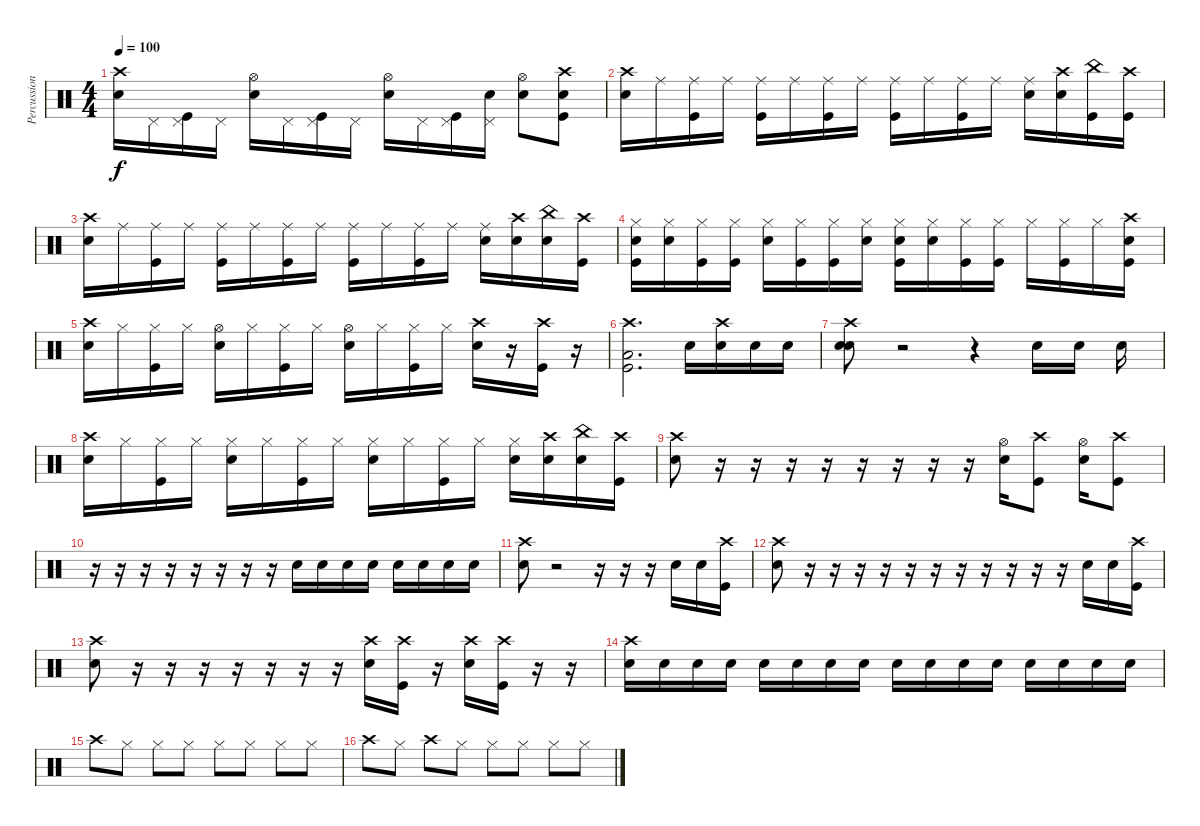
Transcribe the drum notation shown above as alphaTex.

\track ("Percussion" "Percussion") {instrument percussion}
\staff {score}
\articulation defaults
\ts (4 4)
\tempo 100
\clef neutral
\ks c
("Crash high (hit)" "Snare (hit) 2").16{dy f} "Pedal Hi-Hat (hit)".16 ("Kick (hit)" "Pedal Hi-Hat (hit)").16 "Pedal Hi-Hat (hit)".16 ("Hi-Hat (open)" "Snare (hit) 2").16 "Pedal Hi-Hat (hit)".16 ("Pedal Hi-Hat (hit)" "Kick (hit)").16 "Pedal Hi-Hat (hit)".16 ("Hi-Hat (open)" "Snare (hit) 2").16 "Pedal Hi-Hat (hit)".16 ("Kick (hit)" "Pedal Hi-Hat (hit)").16 ("Pedal Hi-Hat (hit)" "Snare (hit) 2").16 ("Hi-Hat (open)" "Snare (hit) 2").8 ("Crash high (hit)" "Kick (hit)" "Snare (hit) 2").8 |
("Snare (hit) 2" "Crash high (hit)").16 "Ride (middle)".16 ("Ride (middle)" "Kick (hit)").16 "Ride (middle)".16 ("Ride (middle)" "Kick (hit)").16 "Ride (middle)".16 ("Ride (middle)" "Kick (hit)").16 "Ride (middle)".16 ("Ride (middle)" "Kick (hit)").16 "Ride (middle)".16 ("Ride (middle)" "Kick (hit)").16 "Ride (middle)".16 ("Ride (middle)" "Snare (hit) 2").16 ("Crash high (hit)" "Snare (hit) 2").16 ("China (hit)" "Kick (hit)").16 ("Crash high (hit)" "Kick (hit)").16 |
("Crash high (hit)" "Snare (hit) 2").16 "Ride (middle)".16 ("Kick (hit)" "Ride (middle)").16 "Ride (middle)".16 ("Kick (hit)" "Ride (middle)").16 "Ride (middle)".16 ("Kick (hit)" "Ride (middle)").16 "Ride (middle)".16 ("Kick (hit)" "Ride (middle)").16 "Ride (middle)".16 ("Kick (hit)" "Ride (middle)").16 "Ride (middle)".16 ("Snare (hit) 2" "Ride (middle)").16 ("Snare (hit) 2" "Crash high (hit)").16 ("China (hit)" "Snare (hit) 2").16 ("Kick (hit)" "Crash high (hit)").16 |
("Hi-Hat (closed)" "Kick (hit)" "Snare (hit) 2").16 ("Hi-Hat (closed)" "Snare (hit) 2").16 ("Hi-Hat (closed)" "Kick (hit)").16 ("Hi-Hat (closed)" "Kick (hit)").16 ("Hi-Hat (closed)" "Snare (hit) 2").16 ("Hi-Hat (closed)" "Kick (hit)").16 ("Hi-Hat (closed)" "Kick (hit)").16 ("Hi-Hat (closed)" "Snare (hit) 2").16 ("Hi-Hat (closed)" "Kick (hit)" "Snare (hit) 2").16 ("Hi-Hat (closed)" "Snare (hit) 2").16 ("Hi-Hat (closed)" "Kick (hit)").16 ("Hi-Hat (closed)" "Kick (hit)").16 "Hi-Hat (closed)".16 ("Hi-Hat (closed)" "Kick (hit)").16 "Hi-Hat (closed)".16 ("Snare (hit) 2" "Kick (hit)" "Crash high (hit)").16 |
("Crash high (hit)" "Snare (hit) 2").16 "Hi-Hat (closed)".16 ("Hi-Hat (closed)" "Kick (hit)").16 "Hi-Hat (closed)".16 ("Hi-Hat (open)" "Snare (hit) 2").16 "Hi-Hat (closed)".16 ("Hi-Hat (closed)" "Kick (hit)").16 "Hi-Hat (closed)".16 ("Hi-Hat (open)" "Snare (hit) 2").16 "Hi-Hat (closed)".16 ("Hi-Hat (closed)" "Kick (hit)").16 "Hi-Hat (closed)".16 ("Crash high (hit)" "Snare (hit) 2").16 r.16 ("Kick (hit)" "Crash high (hit)").16 r.16 |
("Crash high (hit)" "Kick (hit)" "Low Floor Tom (hit)").2{d} "Snare (hit) 2".16 ("Snare (hit) 2" "Crash high (hit)").16 "Snare (hit) 2".16 "Snare (hit) 2".16 |
("Snare (hit) 2" "Crash high (hit)" "Snare (hit) 2").8 r.2 r.4 "Snare (hit) 2".16 "Snare (hit) 2".16 "Snare (hit) 2".16 |
("Crash high (hit)" "Snare (hit) 2").16 "Hi-Hat (closed)".16 ("Hi-Hat (closed)" "Kick (hit)").16 "Hi-Hat (closed)".16 ("Hi-Hat (closed)" "Snare (hit) 2").16 "Hi-Hat (closed)".16 ("Hi-Hat (closed)" "Kick (hit)").16 "Hi-Hat (closed)".16 ("Hi-Hat (closed)" "Snare (hit) 2").16 "Hi-Hat (closed)".16 ("Hi-Hat (closed)" "Kick (hit)").16 "Hi-Hat (closed)".16 ("Hi-Hat (closed)" "Snare (hit) 2").16 ("Crash high (hit)" "Snare (hit) 2").16 ("China (hit)" "Snare (hit) 2").16 ("Crash high (hit)" "Kick (hit)").16 |
("Crash high (hit)" "Snare (hit) 2").8 r.16 r.16 r.16 r.16 r.16 r.16 r.16 r.16 ("Hi-Hat (open)" "Snare (hit) 2").16 ("Crash high (hit)" "Kick (hit)").8 ("Hi-Hat (open)" "Snare (hit) 2").16 ("Crash high (hit)" "Kick (hit)").8 |
r.16 r.16 r.16 r.16 r.16 r.16 r.16 r.16 "Snare (hit) 2".16 "Snare (hit) 2".16 "Snare (hit) 2".16 "Snare (hit) 2".16 "Snare (hit) 2".16 "Snare (hit) 2".16 "Snare (hit) 2".16 "Snare (hit) 2".16 |
("Crash high (hit)" "Snare (hit) 2").8 r.2 r.16 r.16 r.16 "Snare (hit) 2".16 "Snare (hit) 2".16 ("Crash high (hit)" "Kick (hit)").16 |
("Crash high (hit)" "Snare (hit) 2").8 r.16 r.16 r.16 r.16 r.16 r.16 r.16 r.16 r.16 r.16 r.16 "Snare (hit) 2".16 "Snare (hit) 2".16 ("Kick (hit)" "Crash high (hit)").16 |
("Crash high (hit)" "Snare (hit) 2").8 r.16 r.16 r.16 r.16 r.16 r.16 r.16 ("Snare (hit) 2" "Crash high (hit)").16 ("Kick (hit)" "Crash high (hit)").16 r.16 ("Snare (hit) 2" "Crash high (hit)").16 ("Kick (hit)" "Crash high (hit)").16 r.16 r.16 |
("Snare (hit) 2" "Crash high (hit)").16 "Snare (hit) 2".16 "Snare (hit) 2".16 "Snare (hit) 2".16 "Snare (hit) 2".16 "Snare (hit) 2".16 "Snare (hit) 2".16 "Snare (hit) 2".16 "Snare (hit) 2".16 "Snare (hit) 2".16 "Snare (hit) 2".16 "Snare (hit) 2".16 "Snare (hit) 2".16 "Snare (hit) 2".16 "Snare (hit) 2".16 "Snare (hit) 2".16 |
"Crash high (hit)".8 "Hi-Hat (closed)".8 "Hi-Hat (closed)".8 "Hi-Hat (closed)".8 "Hi-Hat (closed)".8 "Hi-Hat (closed)".8 "Hi-Hat (closed)".8 "Hi-Hat (closed)".8 |
"Crash high (hit)".8 "Hi-Hat (closed)".8 "Crash high (hit)".8 "Hi-Hat (closed)".8 "Hi-Hat (closed)".8 "Hi-Hat (closed)".8 "Hi-Hat (closed)".8 "Hi-Hat (closed)".8
